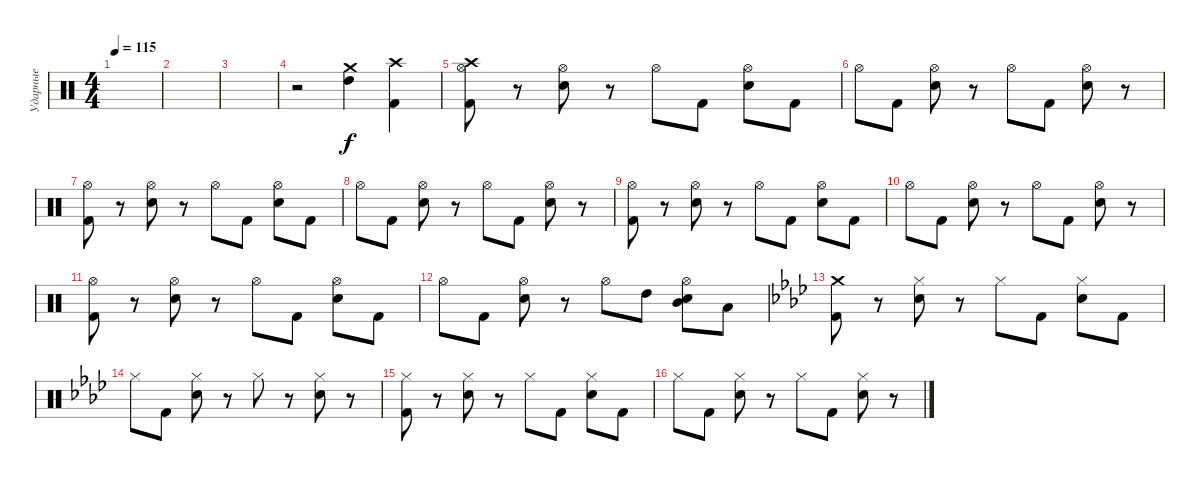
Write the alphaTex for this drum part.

\track ("Ударные" "Ударные") {instrument percussion}
\staff {score}
\articulation defaults
\ts (4 4)
\tempo 115
\clef neutral
\ks c
|
|
|
r.2 ("Crash medium (hit)" "High Tom (hit)").4 ("Crash high (hit)" "Kick (hit) 2").4 |
("Hi-Hat (open)" "Crash high (hit)" "Kick (hit) 2").8 r.8 ("Hi-Hat (open)" "Snare (hit) 2").8 r.8 "Hi-Hat (open)".8 "Kick (hit) 2".8 ("Hi-Hat (open)" "Snare (hit) 2").8 "Kick (hit) 2".8 |
"Hi-Hat (open)".8 "Kick (hit) 2".8 ("Hi-Hat (open)" "Snare (hit) 2").8 r.8 "Hi-Hat (open)".8 "Kick (hit) 2".8 ("Hi-Hat (open)" "Snare (hit) 2").8 r.8 |
("Hi-Hat (open)" "Kick (hit) 2").8 r.8 ("Hi-Hat (open)" "Snare (hit) 2").8 r.8 "Hi-Hat (open)".8 "Kick (hit) 2".8 ("Hi-Hat (open)" "Snare (hit) 2").8 "Kick (hit) 2".8 |
"Hi-Hat (open)".8 "Kick (hit) 2".8 ("Hi-Hat (open)" "Snare (hit) 2").8 r.8 "Hi-Hat (open)".8 "Kick (hit) 2".8 ("Hi-Hat (open)" "Snare (hit) 2").8 r.8 |
("Hi-Hat (open)" "Kick (hit) 2").8 r.8 ("Hi-Hat (open)" "Snare (hit) 2").8 r.8 "Hi-Hat (open)".8 "Kick (hit) 2".8 ("Hi-Hat (open)" "Snare (hit) 2").8 "Kick (hit) 2".8 |
"Hi-Hat (open)".8 "Kick (hit) 2".8 ("Hi-Hat (open)" "Snare (hit) 2").8 r.8 "Hi-Hat (open)".8 "Kick (hit) 2".8 ("Hi-Hat (open)" "Snare (hit) 2").8 r.8 |
("Hi-Hat (open)" "Kick (hit) 2").8 r.8 ("Hi-Hat (open)" "Snare (hit) 2").8 r.8 "Hi-Hat (open)".8 "Kick (hit) 2".8 ("Hi-Hat (open)" "Snare (hit) 2").8 "Kick (hit) 2".8 |
"Hi-Hat (open)".8 "Kick (hit) 2".8 ("Hi-Hat (open)" "Snare (hit) 2").8 r.8 "Hi-Hat (open)".8 "High Tom (hit)".8 ("Hi-Hat (open)" "Mid Tom (hit)" "Snare (hit) 2").8 "Low Tom (hit)".8 |
\ks ab
("Crash medium (hit)" "Kick (hit) 2").8 r.8 ("Hi-Hat (closed)" "Snare (hit) 2").8 r.8 "Hi-Hat (closed)".8 "Kick (hit) 2".8 ("Hi-Hat (closed)" "Snare (hit) 2").8 "Kick (hit) 2".8 |
"Hi-Hat (closed)".8 "Kick (hit) 2".8 ("Hi-Hat (closed)" "Snare (hit) 2").8 r.8 "Hi-Hat (closed)".8 r.8 ("Hi-Hat (closed)" "Snare (hit) 2").8 r.8 |
("Hi-Hat (closed)" "Kick (hit) 2").8 r.8 ("Hi-Hat (closed)" "Snare (hit) 2").8 r.8 "Hi-Hat (closed)".8 "Kick (hit) 2".8 ("Hi-Hat (closed)" "Snare (hit) 2").8 "Kick (hit) 2".8 |
"Hi-Hat (closed)".8 "Kick (hit) 2".8 ("Hi-Hat (closed)" "Snare (hit) 2").8 r.8 "Hi-Hat (closed)".8 "Kick (hit) 2".8 ("Hi-Hat (closed)" "Snare (hit) 2").8 r.8
